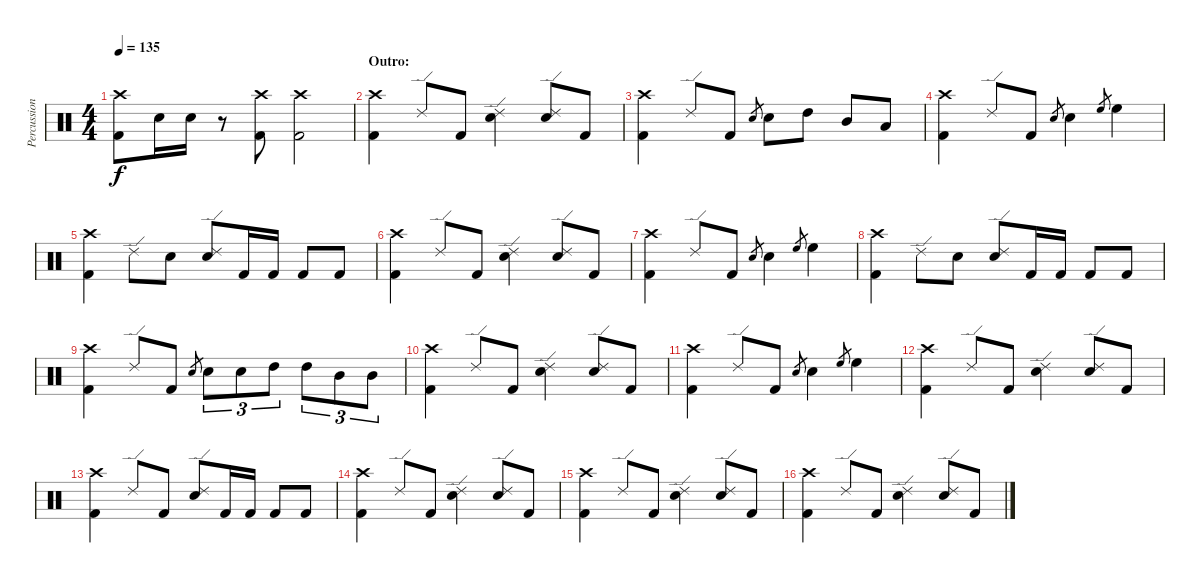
\track ("Percussion" "Percussion") {instrument percussion}
\staff {score}
\articulation defaults
\ts (4 4)
\tempo 135
\clef neutral
\ks c
("Crash high (hit)" "Kick (hit) 2").8{dy f} "Snare (hit) 2".16 "Snare (hit) 2".16 r.8 ("Crash high (hit)" "Kick (hit) 2").8 ("Crash high (hit)" "Kick (hit) 2").2 |
\section ("" "Outro:")
("Crash high (hit)" "Kick (hit) 2").4 "Ride (edge) 2".8 "Kick (hit) 2".8 ("Ride (edge) 2" "Snare (hit) 2").4 ("Ride (edge) 2" "Snare (hit) 2").8 "Kick (hit) 2".8 |
("Crash high (hit)" "Kick (hit) 2").4 "Ride (edge) 2".8 "Kick (hit) 2".8 "Snare (hit) 2".8{gr} "Snare (hit) 2".8 "High Tom (hit)".8 "Mid Tom (hit)".8 "Low Tom (hit)".8 |
("Crash high (hit)" "Kick (hit) 2").4 "Ride (edge) 2".8 "Kick (hit) 2".8 "Snare (hit) 2".8{gr} "Snare (hit) 2".4 "High Floor Tom (hit)".8{gr} "High Floor Tom (hit)".4 |
("Crash high (hit)" "Kick (hit) 2").4 "Ride (edge) 2".8 "Snare (hit) 2".8 ("Ride (edge) 2" "Snare (hit) 2").8 "Kick (hit) 2".16 "Kick (hit) 2".16 "Kick (hit) 2".8 "Kick (hit) 2".8 |
("Crash high (hit)" "Kick (hit) 2").4 "Ride (edge) 2".8 "Kick (hit) 2".8 ("Ride (edge) 2" "Snare (hit) 2").4 ("Ride (edge) 2" "Snare (hit) 2").8 "Kick (hit) 2".8 |
("Crash high (hit)" "Kick (hit) 2").4 "Ride (edge) 2".8 "Kick (hit) 2".8 "Snare (hit) 2".8{gr} "Snare (hit) 2".4 "High Floor Tom (hit)".8{gr} "High Floor Tom (hit)".4 |
("Crash high (hit)" "Kick (hit) 2").4 "Ride (edge) 2".8 "Snare (hit) 2".8 ("Ride (edge) 2" "Snare (hit) 2").8 "Kick (hit) 2".16 "Kick (hit) 2".16 "Kick (hit) 2".8 "Kick (hit) 2".8 |
("Crash high (hit)" "Kick (hit) 2").4 "Ride (edge) 2".8 "Kick (hit) 2".8 "Snare (hit) 2".8{gr} "Snare (hit) 2".8{tu (3 2)} "Snare (hit) 2".8{tu (3 2)} "High Tom (hit)".8{tu (3 2)} "High Tom (hit)".8{tu (3 2)} "Mid Tom (hit)".8{tu (3 2)} "Mid Tom (hit)".8{tu (3 2)} |
("Crash high (hit)" "Kick (hit) 2").4 "Ride (edge) 2".8 "Kick (hit) 2".8 ("Ride (edge) 2" "Snare (hit) 2").4 ("Ride (edge) 2" "Snare (hit) 2").8 "Kick (hit) 2".8 |
("Crash high (hit)" "Kick (hit) 2").4 "Ride (edge) 2".8 "Kick (hit) 2".8 "Snare (hit) 2".8{gr} "Snare (hit) 2".4 "High Floor Tom (hit)".8{gr} "High Floor Tom (hit)".4 |
("Crash high (hit)" "Kick (hit) 2").4 "Ride (edge) 2".8 "Kick (hit) 2".8 ("Ride (edge) 2" "Snare (hit) 2").4 ("Ride (edge) 2" "Snare (hit) 2").8 "Kick (hit) 2".8 |
("Crash high (hit)" "Kick (hit) 2").4 "Ride (edge) 2".8 "Kick (hit) 2".8 ("Ride (edge) 2" "Snare (hit) 2").8 "Kick (hit) 2".16 "Kick (hit) 2".16 "Kick (hit) 2".8 "Kick (hit) 2".8 |
("Crash high (hit)" "Kick (hit) 2").4 "Ride (edge) 2".8 "Kick (hit) 2".8 ("Ride (edge) 2" "Snare (hit) 2").4 ("Ride (edge) 2" "Snare (hit) 2").8 "Kick (hit) 2".8 |
("Crash high (hit)" "Kick (hit) 2").4 "Ride (edge) 2".8 "Kick (hit) 2".8 ("Ride (edge) 2" "Snare (hit) 2").4 ("Ride (edge) 2" "Snare (hit) 2").8 "Kick (hit) 2".8 |
("Crash high (hit)" "Kick (hit) 2").4 "Ride (edge) 2".8 "Kick (hit) 2".8 ("Ride (edge) 2" "Snare (hit) 2").4 ("Ride (edge) 2" "Snare (hit) 2").8 "Kick (hit) 2".8
